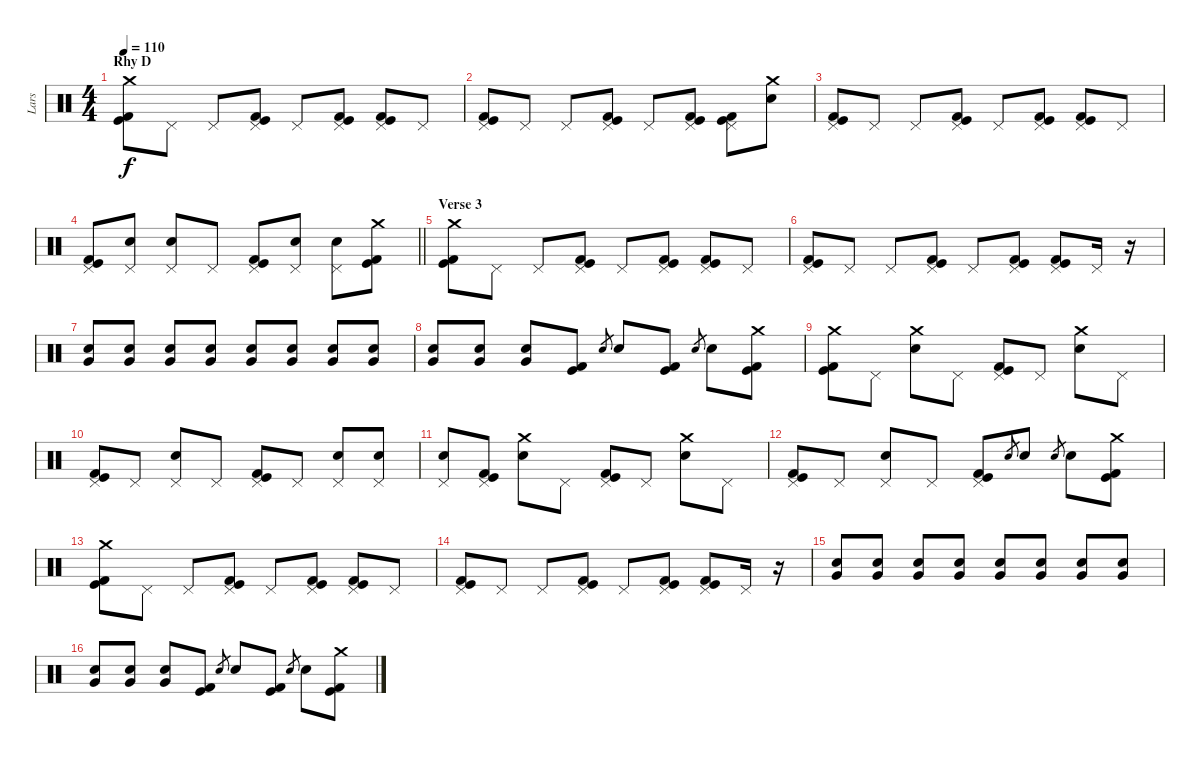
\track ("Lars" "Lars") {instrument percussion}
\staff {score}
\articulation defaults
\ts (4 4)
\section ("" "Rhy D")
\tempo 110
\clef neutral
\ks c
("Crash medium (hit)" "Kick (hit)" "Kick (hit) 2").8{dy f} "Pedal Hi-Hat (hit)".8 "Pedal Hi-Hat (hit)".8 ("Pedal Hi-Hat (hit)" "Kick (hit)" "Kick (hit) 2").8 "Pedal Hi-Hat (hit)".8 ("Pedal Hi-Hat (hit)" "Kick (hit)" "Kick (hit) 2").8 ("Pedal Hi-Hat (hit)" "Kick (hit)" "Kick (hit) 2").8 "Pedal Hi-Hat (hit)".8 |
("Pedal Hi-Hat (hit)" "Kick (hit)" "Kick (hit) 2").8 "Pedal Hi-Hat (hit)".8 "Pedal Hi-Hat (hit)".8 ("Pedal Hi-Hat (hit)" "Kick (hit)" "Kick (hit) 2").8 "Pedal Hi-Hat (hit)".8 ("Pedal Hi-Hat (hit)" "Kick (hit)" "Kick (hit) 2").8 ("Pedal Hi-Hat (hit)" "Kick (hit)" "Kick (hit) 2").8 ("Crash medium (hit)" "Electric Snare (hit)").8 |
("Pedal Hi-Hat (hit)" "Kick (hit)" "Kick (hit) 2").8 "Pedal Hi-Hat (hit)".8 "Pedal Hi-Hat (hit)".8 ("Pedal Hi-Hat (hit)" "Kick (hit)" "Kick (hit) 2").8 "Pedal Hi-Hat (hit)".8 ("Pedal Hi-Hat (hit)" "Kick (hit)" "Kick (hit) 2").8 ("Pedal Hi-Hat (hit)" "Kick (hit)" "Kick (hit) 2").8 "Pedal Hi-Hat (hit)".8 |
\barLineRight lightlight
("Pedal Hi-Hat (hit)" "Kick (hit)" "Kick (hit) 2").8 ("Pedal Hi-Hat (hit)" "Electric Snare (hit)").8 ("Pedal Hi-Hat (hit)" "Electric Snare (hit)").8 "Pedal Hi-Hat (hit)".8 ("Pedal Hi-Hat (hit)" "Kick (hit)" "Kick (hit) 2").8 ("Pedal Hi-Hat (hit)" "Electric Snare (hit)").8 ("Pedal Hi-Hat (hit)" "Electric Snare (hit)").8 ("Crash medium (hit)" "Kick (hit)" "Kick (hit) 2").8 |
\section ("" "Verse 3")
("Crash medium (hit)" "Kick (hit)" "Kick (hit) 2").8 "Pedal Hi-Hat (hit)".8 "Pedal Hi-Hat (hit)".8 ("Pedal Hi-Hat (hit)" "Kick (hit)" "Kick (hit) 2").8 "Pedal Hi-Hat (hit)".8 ("Pedal Hi-Hat (hit)" "Kick (hit)" "Kick (hit) 2").8 ("Pedal Hi-Hat (hit)" "Kick (hit)" "Kick (hit) 2").8 "Pedal Hi-Hat (hit)".8 |
("Pedal Hi-Hat (hit)" "Kick (hit)" "Kick (hit) 2").8 "Pedal Hi-Hat (hit)".8 "Pedal Hi-Hat (hit)".8 ("Pedal Hi-Hat (hit)" "Kick (hit)" "Kick (hit) 2").8 "Pedal Hi-Hat (hit)".8 ("Pedal Hi-Hat (hit)" "Kick (hit)" "Kick (hit) 2").8 ("Pedal Hi-Hat (hit)" "Kick (hit)" "Kick (hit) 2").8 "Pedal Hi-Hat (hit)".16 r.16{volume 5} |
("Electric Snare (hit)" "Very Low Tom (hit)").8{volume 16} ("Electric Snare (hit)" "Very Low Tom (hit)").8 ("Electric Snare (hit)" "Very Low Tom (hit)").8 ("Electric Snare (hit)" "Very Low Tom (hit)").8 ("Electric Snare (hit)" "Very Low Tom (hit)").8 ("Electric Snare (hit)" "Very Low Tom (hit)").8 ("Electric Snare (hit)" "Very Low Tom (hit)").8 ("Electric Snare (hit)" "Very Low Tom (hit)").8 |
("Electric Snare (hit)" "Very Low Tom (hit)").8 ("Electric Snare (hit)" "Very Low Tom (hit)").8 ("Electric Snare (hit)" "Very Low Tom (hit)").8 ("Kick (hit)" "Kick (hit) 2").8 "Electric Snare (hit)".8{gr} "Electric Snare (hit)".8 ("Kick (hit)" "Kick (hit) 2").8 "Electric Snare (hit)".8{gr} "Electric Snare (hit)".8 ("Crash medium (hit)" "Kick (hit)" "Kick (hit) 2").8 |
("Crash medium (hit)" "Kick (hit)" "Kick (hit) 2").8 "Pedal Hi-Hat (hit)".8 ("Crash medium (hit)" "Electric Snare (hit)").8 "Pedal Hi-Hat (hit)".8 ("Pedal Hi-Hat (hit)" "Kick (hit)" "Kick (hit) 2").8 "Pedal Hi-Hat (hit)".8 ("Crash medium (hit)" "Electric Snare (hit)").8 "Pedal Hi-Hat (hit)".8 |
("Pedal Hi-Hat (hit)" "Kick (hit)" "Kick (hit) 2").8 "Pedal Hi-Hat (hit)".8 ("Pedal Hi-Hat (hit)" "Electric Snare (hit)").8 "Pedal Hi-Hat (hit)".8 ("Pedal Hi-Hat (hit)" "Kick (hit)" "Kick (hit) 2").8 "Pedal Hi-Hat (hit)".8 ("Pedal Hi-Hat (hit)" "Electric Snare (hit)").8 ("Pedal Hi-Hat (hit)" "Electric Snare (hit)").8 |
("Pedal Hi-Hat (hit)" "Electric Snare (hit)").8 ("Pedal Hi-Hat (hit)" "Kick (hit)" "Kick (hit) 2").8 ("Crash medium (hit)" "Electric Snare (hit)").8 "Pedal Hi-Hat (hit)".8 ("Pedal Hi-Hat (hit)" "Kick (hit)" "Kick (hit) 2").8 "Pedal Hi-Hat (hit)".8 ("Crash medium (hit)" "Electric Snare (hit)").8 "Pedal Hi-Hat (hit)".8 |
("Pedal Hi-Hat (hit)" "Kick (hit)" "Kick (hit) 2").8 "Pedal Hi-Hat (hit)".8 ("Pedal Hi-Hat (hit)" "Electric Snare (hit)").8 "Pedal Hi-Hat (hit)".8 ("Pedal Hi-Hat (hit)" "Kick (hit)" "Kick (hit) 2").8 "Electric Snare (hit)".8{gr} "Electric Snare (hit)".8 "Electric Snare (hit)".8{gr} "Electric Snare (hit)".8 ("Crash medium (hit)" "Kick (hit)" "Kick (hit) 2").8 |
("Crash medium (hit)" "Kick (hit)" "Kick (hit) 2").8 "Pedal Hi-Hat (hit)".8 "Pedal Hi-Hat (hit)".8 ("Pedal Hi-Hat (hit)" "Kick (hit)" "Kick (hit) 2").8 "Pedal Hi-Hat (hit)".8 ("Pedal Hi-Hat (hit)" "Kick (hit)" "Kick (hit) 2").8 ("Pedal Hi-Hat (hit)" "Kick (hit)" "Kick (hit) 2").8 "Pedal Hi-Hat (hit)".8 |
("Pedal Hi-Hat (hit)" "Kick (hit)" "Kick (hit) 2").8 "Pedal Hi-Hat (hit)".8 "Pedal Hi-Hat (hit)".8 ("Pedal Hi-Hat (hit)" "Kick (hit)" "Kick (hit) 2").8 "Pedal Hi-Hat (hit)".8 ("Pedal Hi-Hat (hit)" "Kick (hit)" "Kick (hit) 2").8 ("Pedal Hi-Hat (hit)" "Kick (hit)" "Kick (hit) 2").8 "Pedal Hi-Hat (hit)".16 r.16{volume 5} |
("Electric Snare (hit)" "Very Low Tom (hit)").8{volume 16} ("Electric Snare (hit)" "Very Low Tom (hit)").8 ("Electric Snare (hit)" "Very Low Tom (hit)").8 ("Electric Snare (hit)" "Very Low Tom (hit)").8 ("Electric Snare (hit)" "Very Low Tom (hit)").8 ("Electric Snare (hit)" "Very Low Tom (hit)").8 ("Electric Snare (hit)" "Very Low Tom (hit)").8 ("Electric Snare (hit)" "Very Low Tom (hit)").8 |
("Electric Snare (hit)" "Very Low Tom (hit)").8 ("Electric Snare (hit)" "Very Low Tom (hit)").8 ("Electric Snare (hit)" "Very Low Tom (hit)").8 ("Kick (hit)" "Kick (hit) 2").8 "Electric Snare (hit)".8{gr} "Electric Snare (hit)".8 ("Kick (hit)" "Kick (hit) 2").8 "Electric Snare (hit)".8{gr} "Electric Snare (hit)".8 ("Crash medium (hit)" "Kick (hit)" "Kick (hit) 2").8
